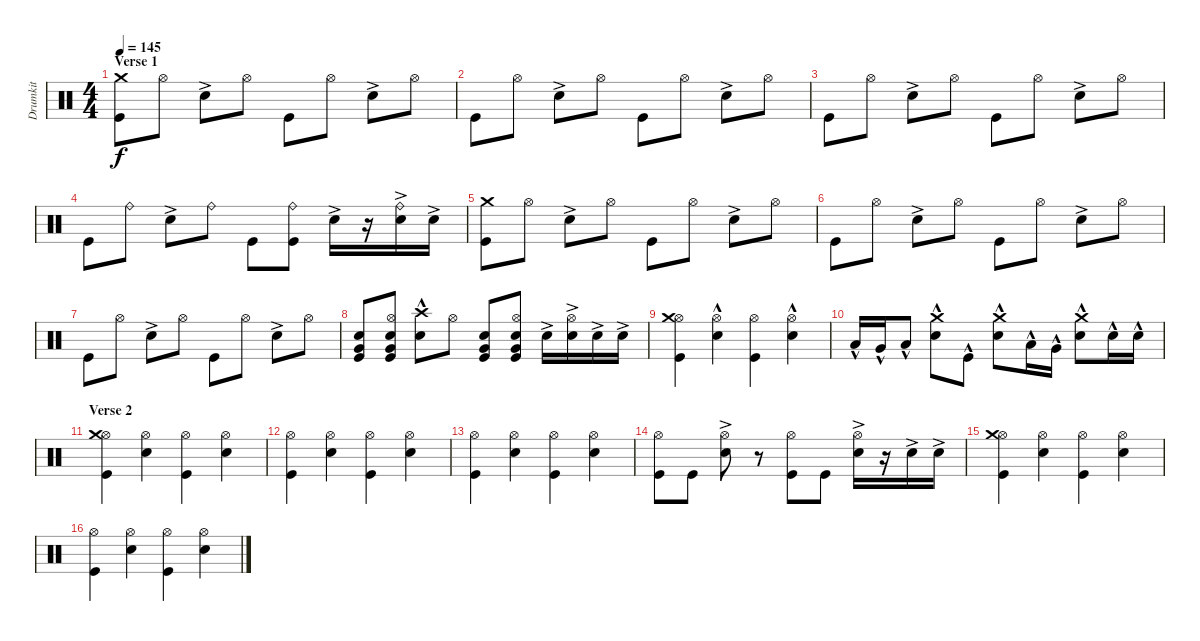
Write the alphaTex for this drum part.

\track ("Drumkit" "Drumkit") {instrument percussion}
\staff {score}
\articulation defaults
\ts (4 4)
\section ("" "Verse 1")
\tempo 145
\clef neutral
\ks c
("Crash medium (hit)" "Kick (hit)").8{dy f} "Hi-Hat (open)".8 "Snare (hit) 2"{ac}.8 "Hi-Hat (open)".8 "Kick (hit)".8 "Hi-Hat (open)".8 "Snare (hit) 2"{ac}.8 "Hi-Hat (open)".8 |
"Kick (hit)".8 "Hi-Hat (open)".8 "Snare (hit) 2"{ac}.8 "Hi-Hat (open)".8 "Kick (hit)".8 "Hi-Hat (open)".8 "Snare (hit) 2"{ac}.8 "Hi-Hat (open)".8 |
"Kick (hit)".8 "Hi-Hat (open)".8 "Snare (hit) 2"{ac}.8 "Hi-Hat (open)".8 "Kick (hit)".8 "Hi-Hat (open)".8 "Snare (hit) 2"{ac}.8 "Hi-Hat (open)".8 |
"Kick (hit)".8 "Ride (bell)".8 "Snare (hit) 2"{ac}.8 "Ride (bell)".8 "Kick (hit)".8 ("Kick (hit)" "Ride (bell)").8 "Snare (hit) 2"{ac}.16 r.16 ("Snare (hit) 2"{ac} "Ride (bell)").16 "Snare (hit) 2"{ac}.16 |
("Crash medium (hit)" "Kick (hit)").8 "Hi-Hat (open)".8 "Snare (hit) 2"{ac}.8 "Hi-Hat (open)".8 "Kick (hit)".8 "Hi-Hat (open)".8 "Snare (hit) 2"{ac}.8 "Hi-Hat (open)".8 |
"Kick (hit)".8 "Hi-Hat (open)".8 "Snare (hit) 2"{ac}.8 "Hi-Hat (open)".8 "Kick (hit)".8 "Hi-Hat (open)".8 "Snare (hit) 2"{ac}.8 "Hi-Hat (open)".8 |
"Kick (hit)".8 "Hi-Hat (open)".8 "Snare (hit) 2"{ac}.8 "Hi-Hat (open)".8 "Kick (hit)".8 "Hi-Hat (open)".8 "Snare (hit) 2"{ac}.8 "Hi-Hat (open)".8 |
("Kick (hit)" "Very Low Tom (hit)" "Snare (hit) 2").8 ("Hi-Hat (open)" "Kick (hit)" "Very Low Tom (hit)" "Snare (hit) 2").8 ("Snare (hit) 2"{hac} "Crash high (hit)"{hac}).8 "Hi-Hat (open)".8 ("Kick (hit)" "Very Low Tom (hit)" "Snare (hit) 2").8 ("Hi-Hat (open)" "Kick (hit)" "Very Low Tom (hit)" "Snare (hit) 2").8 "Snare (hit) 2"{ac}.16 ("Hi-Hat (open)" "Snare (hit) 2"{ac}).16 "Snare (hit) 2"{ac}.16 "Snare (hit) 2"{ac}.16 |
("Hi-Hat (open)" "Kick (hit)" "Crash medium (hit)").4 ("Hi-Hat (open)" "Snare (hit) 2"{hac}).4 ("Hi-Hat (open)" "Kick (hit)").4 ("Hi-Hat (open)" "Snare (hit) 2"{hac}).4 |
"Low Tom (hit)"{hac}.16 "Very Low Tom (hit)"{hac}.16 "Low Floor Tom (hit)"{hac}.8 ("Snare (hit) 2"{hac} "Crash medium (hit)"{hac}).8 "Kick (hit)"{hac}.8 ("Snare (hit) 2"{hac} "Crash medium (hit)").8 "Low Tom (hit)"{hac}.16 "Very Low Tom (hit)"{hac}.16 ("Snare (hit) 2"{hac} "Crash medium (hit)").8 "Snare (hit) 2"{hac}.16 "Snare (hit) 2"{hac}.16 |
\section ("" "Verse 2")
("Kick (hit)" "Hi-Hat (open)" "Crash medium (hit)").4 ("Snare (hit) 2" "Hi-Hat (open)").4 ("Kick (hit)" "Hi-Hat (open)").4 ("Snare (hit) 2" "Hi-Hat (open)").4 |
("Kick (hit)" "Hi-Hat (open)").4 ("Snare (hit) 2" "Hi-Hat (open)").4 ("Kick (hit)" "Hi-Hat (open)").4 ("Snare (hit) 2" "Hi-Hat (open)").4 |
("Kick (hit)" "Hi-Hat (open)").4 ("Snare (hit) 2" "Hi-Hat (open)").4 ("Kick (hit)" "Hi-Hat (open)").4 ("Snare (hit) 2" "Hi-Hat (open)").4 |
("Kick (hit)" "Hi-Hat (open)").8 "Kick (hit)".8 ("Snare (hit) 2"{ac} "Hi-Hat (open)").8 r.8 ("Kick (hit)" "Hi-Hat (open)").8 "Kick (hit)".8 ("Snare (hit) 2"{ac} "Hi-Hat (open)").16 r.16 "Snare (hit) 2"{ac}.16 "Snare (hit) 2"{ac}.16 |
("Kick (hit)" "Hi-Hat (open)" "Crash medium (hit)").4 ("Snare (hit) 2" "Hi-Hat (open)").4 ("Kick (hit)" "Hi-Hat (open)").4 ("Snare (hit) 2" "Hi-Hat (open)").4 |
("Kick (hit)" "Hi-Hat (open)").4 ("Snare (hit) 2" "Hi-Hat (open)").4 ("Kick (hit)" "Hi-Hat (open)").4 ("Snare (hit) 2" "Hi-Hat (open)").4
